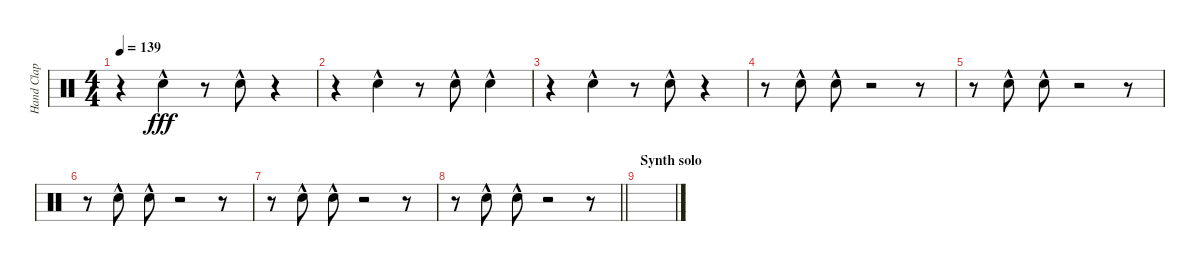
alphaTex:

\track ("Hand Clap Effect" "Hand Clap ") {instrument percussion}
\staff {score}
\articulation defaults
\ts (4 4)
\tempo 139
\clef neutral
\ks c
r.4{dy fff} "Hand Clap (hit)"{hac}.4 r.8 "Hand Clap (hit)"{hac}.8 r.4 |
r.4 "Hand Clap (hit)"{hac}.4 r.8 "Hand Clap (hit)"{hac}.8 "Hand Clap (hit)"{hac}.4 |
r.4 "Hand Clap (hit)"{hac}.4 r.8 "Hand Clap (hit)"{hac}.8 r.4 |
r.8 "Hand Clap (hit)"{hac}.8 "Hand Clap (hit)"{hac}.8 r.2 r.8 |
r.8 "Hand Clap (hit)"{hac}.8 "Hand Clap (hit)"{hac}.8 r.2 r.8 |
r.8 "Hand Clap (hit)"{hac}.8 "Hand Clap (hit)"{hac}.8 r.2 r.8 |
r.8 "Hand Clap (hit)"{hac}.8 "Hand Clap (hit)"{hac}.8 r.2 r.8 |
\barLineRight lightlight
r.8 "Hand Clap (hit)"{hac}.8 "Hand Clap (hit)"{hac}.8 r.2 r.8 |
\section ("" "Synth solo")
